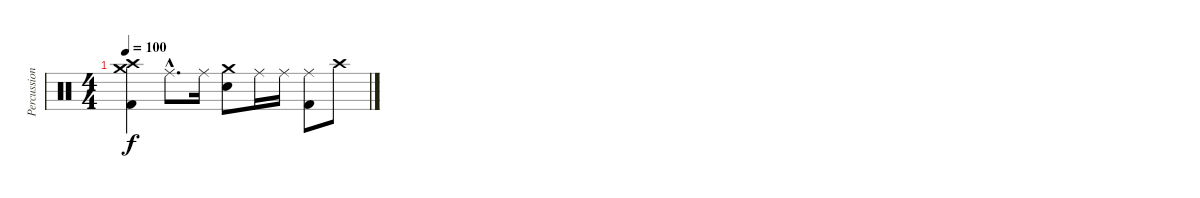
\track ("Percussion" "Percussion") {instrument percussion}
\staff {score}
\articulation defaults
\ts (4 4)
\tempo 100
\clef neutral
\ks c
("Crash medium (hit)" "Crash high (hit)" "Kick (hit) 2").4{dy f} "Ride (middle)"{hac}.8{d} "Ride (middle)".16 ("Crash medium (hit)" "Snare (hit) 2").8 "Ride (middle)".16 "Ride (middle)".16 ("Ride (middle)" "Kick (hit) 2").8 "Crash high (hit)".8
